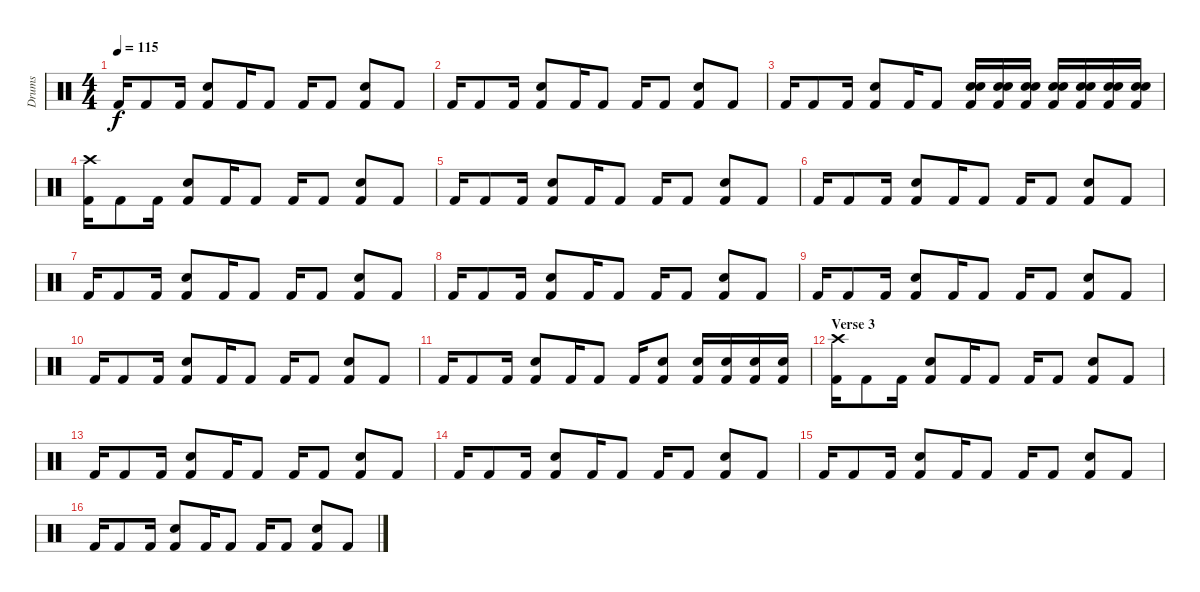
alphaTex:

\track ("Drums" "Drums") {instrument percussion}
\staff {score}
\articulation defaults
\ts (4 4)
\tempo 115
\clef neutral
\ks c "Kick (hit) 2".16{dy f} "Kick (hit) 2".8 "Kick (hit) 2".16
("Snare (hit) 2" "Kick (hit) 2").8 "Kick (hit) 2".16 "Kick (hit) 2".8 "Kick (hit) 2".16 "Kick (hit) 2".8 ("Snare (hit) 2" "Kick (hit) 2").8 "Kick (hit) 2".8 |
"Kick (hit) 2".16 "Kick (hit) 2".8 "Kick (hit) 2".16 ("Snare (hit) 2" "Kick (hit) 2").8 "Kick (hit) 2".16 "Kick (hit) 2".8 "Kick (hit) 2".16 "Kick (hit) 2".8 ("Snare (hit) 2" "Kick (hit) 2").8 "Kick (hit) 2".8 |
"Kick (hit) 2".16 "Kick (hit) 2".8 "Kick (hit) 2".16 ("Snare (hit) 2" "Kick (hit) 2").8 "Kick (hit) 2".16 "Kick (hit) 2".8 ("Snare (hit) 2" "Snare (hit) 2" "Kick (hit) 2").16 ("Snare (hit) 2" "Snare (hit) 2" "Kick (hit) 2").16 ("Snare (hit) 2" "Snare (hit) 2" "Kick (hit) 2").16 ("Snare (hit) 2" "Snare (hit) 2" "Kick (hit) 2").16 ("Snare (hit) 2" "Snare (hit) 2" "Kick (hit) 2").16 ("Snare (hit) 2" "Snare (hit) 2" "Kick (hit) 2").16 ("Snare (hit) 2" "Snare (hit) 2" "Kick (hit) 2").16 |
("Crash high (hit)" "Kick (hit) 2").16 "Kick (hit) 2".8 "Kick (hit) 2".16 ("Snare (hit) 2" "Kick (hit) 2").8 "Kick (hit) 2".16 "Kick (hit) 2".8 "Kick (hit) 2".16 "Kick (hit) 2".8 ("Snare (hit) 2" "Kick (hit) 2").8 "Kick (hit) 2".8 |
"Kick (hit) 2".16 "Kick (hit) 2".8 "Kick (hit) 2".16 ("Snare (hit) 2" "Kick (hit) 2").8 "Kick (hit) 2".16 "Kick (hit) 2".8 "Kick (hit) 2".16 "Kick (hit) 2".8 ("Snare (hit) 2" "Kick (hit) 2").8 "Kick (hit) 2".8 |
"Kick (hit) 2".16 "Kick (hit) 2".8 "Kick (hit) 2".16 ("Snare (hit) 2" "Kick (hit) 2").8 "Kick (hit) 2".16 "Kick (hit) 2".8 "Kick (hit) 2".16 "Kick (hit) 2".8 ("Snare (hit) 2" "Kick (hit) 2").8 "Kick (hit) 2".8 |
"Kick (hit) 2".16 "Kick (hit) 2".8 "Kick (hit) 2".16 ("Snare (hit) 2" "Kick (hit) 2").8 "Kick (hit) 2".16 "Kick (hit) 2".8 "Kick (hit) 2".16 "Kick (hit) 2".8 ("Snare (hit) 2" "Kick (hit) 2").8 "Kick (hit) 2".8 |
"Kick (hit) 2".16 "Kick (hit) 2".8 "Kick (hit) 2".16 ("Snare (hit) 2" "Kick (hit) 2").8 "Kick (hit) 2".16 "Kick (hit) 2".8 "Kick (hit) 2".16 "Kick (hit) 2".8 ("Snare (hit) 2" "Kick (hit) 2").8 "Kick (hit) 2".8 |
"Kick (hit) 2".16 "Kick (hit) 2".8 "Kick (hit) 2".16 ("Snare (hit) 2" "Kick (hit) 2").8 "Kick (hit) 2".16 "Kick (hit) 2".8 "Kick (hit) 2".16 "Kick (hit) 2".8 ("Snare (hit) 2" "Kick (hit) 2").8 "Kick (hit) 2".8 |
"Kick (hit) 2".16 "Kick (hit) 2".8 "Kick (hit) 2".16 ("Snare (hit) 2" "Kick (hit) 2").8 "Kick (hit) 2".16 "Kick (hit) 2".8 "Kick (hit) 2".16 "Kick (hit) 2".8 ("Snare (hit) 2" "Kick (hit) 2").8 "Kick (hit) 2".8 |
"Kick (hit) 2".16 "Kick (hit) 2".8 "Kick (hit) 2".16 ("Snare (hit) 2" "Kick (hit) 2").8 "Kick (hit) 2".16 "Kick (hit) 2".8 "Kick (hit) 2".16 ("Snare (hit) 2" "Kick (hit) 2").8 ("Snare (hit) 2" "Kick (hit) 2").16 ("Snare (hit) 2" "Kick (hit) 2").16 ("Snare (hit) 2" "Kick (hit) 2").16 ("Snare (hit) 2" "Kick (hit) 2").16 |
\section ("" "Verse 3")
("Crash high (hit)" "Kick (hit) 2").16 "Kick (hit) 2".8 "Kick (hit) 2".16 ("Snare (hit) 2" "Kick (hit) 2").8 "Kick (hit) 2".16 "Kick (hit) 2".8 "Kick (hit) 2".16 "Kick (hit) 2".8 ("Snare (hit) 2" "Kick (hit) 2").8 "Kick (hit) 2".8 |
"Kick (hit) 2".16 "Kick (hit) 2".8 "Kick (hit) 2".16 ("Snare (hit) 2" "Kick (hit) 2").8 "Kick (hit) 2".16 "Kick (hit) 2".8 "Kick (hit) 2".16 "Kick (hit) 2".8 ("Snare (hit) 2" "Kick (hit) 2").8 "Kick (hit) 2".8 |
"Kick (hit) 2".16 "Kick (hit) 2".8 "Kick (hit) 2".16 ("Snare (hit) 2" "Kick (hit) 2").8 "Kick (hit) 2".16 "Kick (hit) 2".8 "Kick (hit) 2".16 "Kick (hit) 2".8 ("Snare (hit) 2" "Kick (hit) 2").8 "Kick (hit) 2".8 |
"Kick (hit) 2".16 "Kick (hit) 2".8 "Kick (hit) 2".16 ("Snare (hit) 2" "Kick (hit) 2").8 "Kick (hit) 2".16 "Kick (hit) 2".8 "Kick (hit) 2".16 "Kick (hit) 2".8 ("Snare (hit) 2" "Kick (hit) 2").8 "Kick (hit) 2".8 |
"Kick (hit) 2".16 "Kick (hit) 2".8 "Kick (hit) 2".16 ("Snare (hit) 2" "Kick (hit) 2").8 "Kick (hit) 2".16 "Kick (hit) 2".8 "Kick (hit) 2".16 "Kick (hit) 2".8 ("Snare (hit) 2" "Kick (hit) 2").8 "Kick (hit) 2".8
